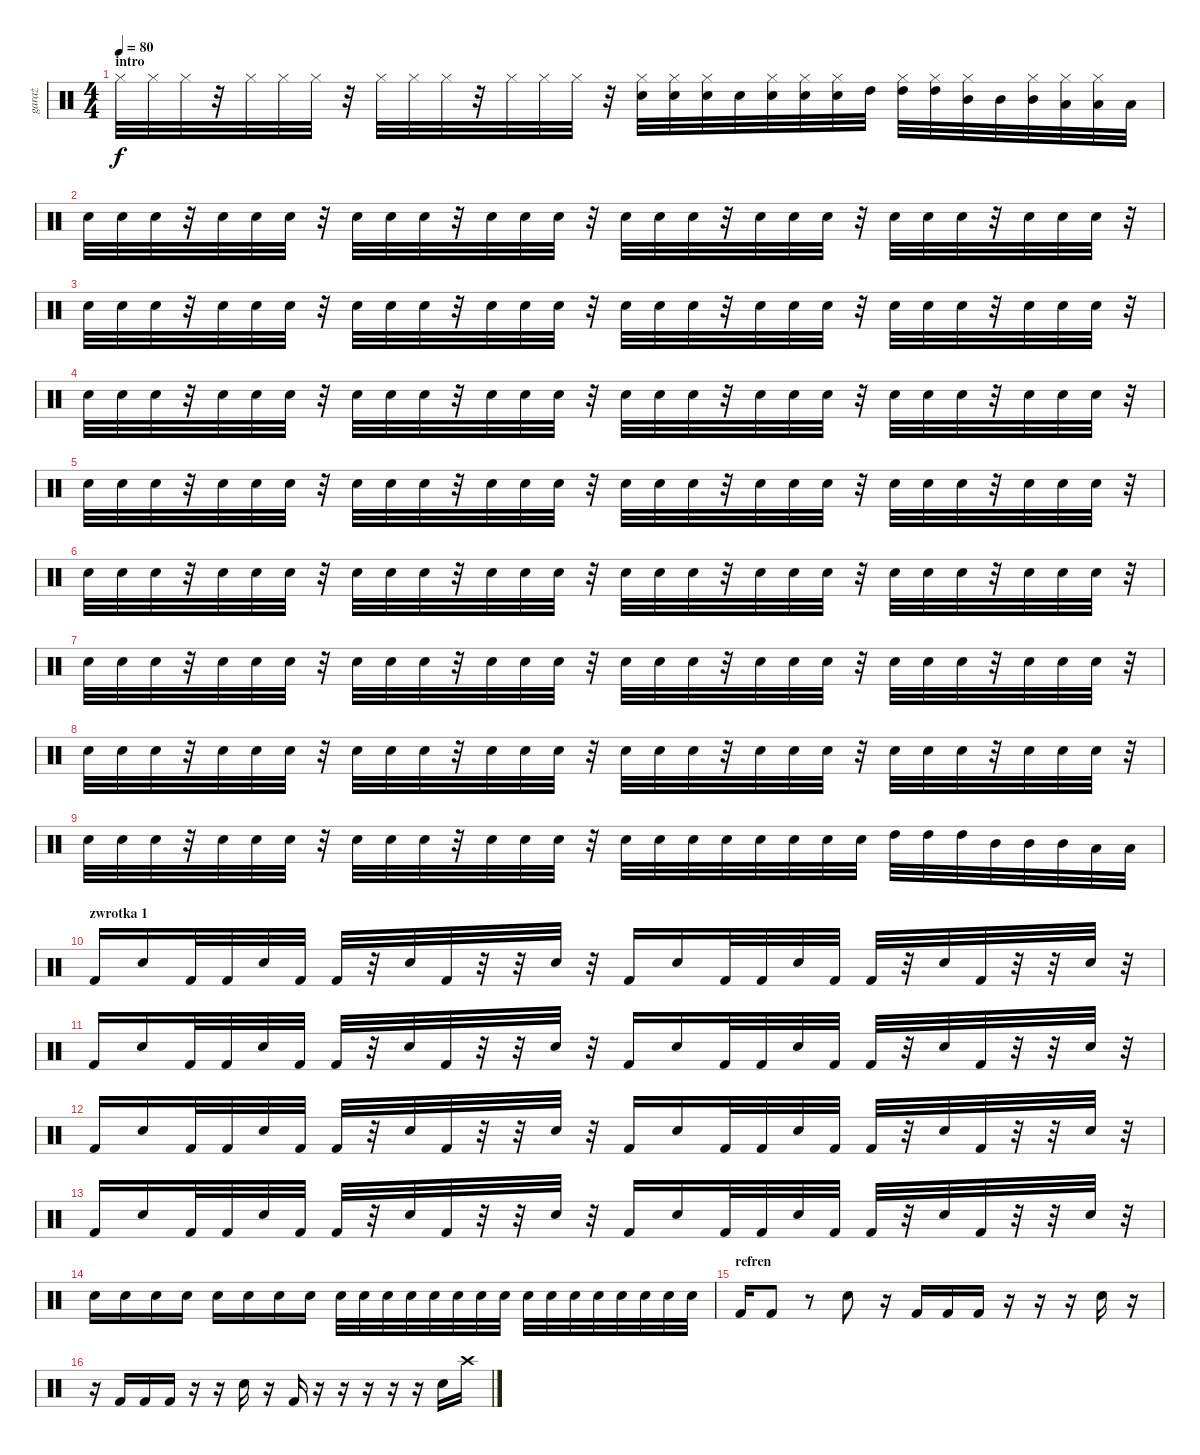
\track ("garaż" "garaż") {instrument percussion}
\staff {score}
\articulation defaults
\ts (4 4)
\section ("" "intro")
\tempo 80
\clef neutral
\ks c "Hi-Hat (closed)".32{dy f} "Hi-Hat (closed)".32 "Hi-Hat (closed)".32
r.32 "Hi-Hat (closed)".32 "Hi-Hat (closed)".32 "Hi-Hat (closed)".32 r.32 "Hi-Hat (closed)".32 "Hi-Hat (closed)".32 "Hi-Hat (closed)".32 r.32 "Hi-Hat (closed)".32 "Hi-Hat (closed)".32 "Hi-Hat (closed)".32 r.32 ("Hi-Hat (closed)" "Snare (hit) 2").32 ("Hi-Hat (closed)" "Snare (hit) 2").32 ("Hi-Hat (closed)" "Snare (hit) 2").32 "Snare (hit) 2".32 ("Hi-Hat (closed)" "Snare (hit) 2").32 ("Hi-Hat (closed)" "Snare (hit) 2").32 ("Hi-Hat (closed)" "Snare (hit) 2").32 "High Tom (hit)".32 ("Hi-Hat (closed)" "High Tom (hit)").32 ("Hi-Hat (closed)" "High Tom (hit)").32 ("Hi-Hat (closed)" "Mid Tom (hit)").32 "Mid Tom (hit)".32 ("Hi-Hat (closed)" "Mid Tom (hit)").32 ("Hi-Hat (closed)" "Low Tom (hit)").32 ("Hi-Hat (closed)" "Low Tom (hit)").32 "Low Tom (hit)".32 |
"Snare (hit) 2".32 "Snare (hit) 2".32 "Snare (hit) 2".32 r.32 "Snare (hit) 2".32 "Snare (hit) 2".32 "Snare (hit) 2".32 r.32 "Snare (hit) 2".32 "Snare (hit) 2".32 "Snare (hit) 2".32 r.32 "Snare (hit) 2".32 "Snare (hit) 2".32 "Snare (hit) 2".32 r.32 "Snare (hit) 2".32 "Snare (hit) 2".32 "Snare (hit) 2".32 r.32 "Snare (hit) 2".32 "Snare (hit) 2".32 "Snare (hit) 2".32 r.32 "Snare (hit) 2".32 "Snare (hit) 2".32 "Snare (hit) 2".32 r.32 "Snare (hit) 2".32 "Snare (hit) 2".32 "Snare (hit) 2".32 r.32 |
"Snare (hit) 2".32 "Snare (hit) 2".32 "Snare (hit) 2".32 r.32 "Snare (hit) 2".32 "Snare (hit) 2".32 "Snare (hit) 2".32 r.32 "Snare (hit) 2".32 "Snare (hit) 2".32 "Snare (hit) 2".32 r.32 "Snare (hit) 2".32 "Snare (hit) 2".32 "Snare (hit) 2".32 r.32 "Snare (hit) 2".32 "Snare (hit) 2".32 "Snare (hit) 2".32 r.32 "Snare (hit) 2".32 "Snare (hit) 2".32 "Snare (hit) 2".32 r.32 "Snare (hit) 2".32 "Snare (hit) 2".32 "Snare (hit) 2".32 r.32 "Snare (hit) 2".32 "Snare (hit) 2".32 "Snare (hit) 2".32 r.32 |
"Snare (hit) 2".32 "Snare (hit) 2".32 "Snare (hit) 2".32 r.32 "Snare (hit) 2".32 "Snare (hit) 2".32 "Snare (hit) 2".32 r.32 "Snare (hit) 2".32 "Snare (hit) 2".32 "Snare (hit) 2".32 r.32 "Snare (hit) 2".32 "Snare (hit) 2".32 "Snare (hit) 2".32 r.32 "Snare (hit) 2".32 "Snare (hit) 2".32 "Snare (hit) 2".32 r.32 "Snare (hit) 2".32 "Snare (hit) 2".32 "Snare (hit) 2".32 r.32 "Snare (hit) 2".32 "Snare (hit) 2".32 "Snare (hit) 2".32 r.32 "Snare (hit) 2".32 "Snare (hit) 2".32 "Snare (hit) 2".32 r.32 |
"Snare (hit) 2".32 "Snare (hit) 2".32 "Snare (hit) 2".32 r.32 "Snare (hit) 2".32 "Snare (hit) 2".32 "Snare (hit) 2".32 r.32 "Snare (hit) 2".32 "Snare (hit) 2".32 "Snare (hit) 2".32 r.32 "Snare (hit) 2".32 "Snare (hit) 2".32 "Snare (hit) 2".32 r.32 "Snare (hit) 2".32 "Snare (hit) 2".32 "Snare (hit) 2".32 r.32 "Snare (hit) 2".32 "Snare (hit) 2".32 "Snare (hit) 2".32 r.32 "Snare (hit) 2".32 "Snare (hit) 2".32 "Snare (hit) 2".32 r.32 "Snare (hit) 2".32 "Snare (hit) 2".32 "Snare (hit) 2".32 r.32 |
"Snare (hit) 2".32 "Snare (hit) 2".32 "Snare (hit) 2".32 r.32 "Snare (hit) 2".32 "Snare (hit) 2".32 "Snare (hit) 2".32 r.32 "Snare (hit) 2".32 "Snare (hit) 2".32 "Snare (hit) 2".32 r.32 "Snare (hit) 2".32 "Snare (hit) 2".32 "Snare (hit) 2".32 r.32 "Snare (hit) 2".32 "Snare (hit) 2".32 "Snare (hit) 2".32 r.32 "Snare (hit) 2".32 "Snare (hit) 2".32 "Snare (hit) 2".32 r.32 "Snare (hit) 2".32 "Snare (hit) 2".32 "Snare (hit) 2".32 r.32 "Snare (hit) 2".32 "Snare (hit) 2".32 "Snare (hit) 2".32 r.32 |
"Snare (hit) 2".32 "Snare (hit) 2".32 "Snare (hit) 2".32 r.32 "Snare (hit) 2".32 "Snare (hit) 2".32 "Snare (hit) 2".32 r.32 "Snare (hit) 2".32 "Snare (hit) 2".32 "Snare (hit) 2".32 r.32 "Snare (hit) 2".32 "Snare (hit) 2".32 "Snare (hit) 2".32 r.32 "Snare (hit) 2".32 "Snare (hit) 2".32 "Snare (hit) 2".32 r.32 "Snare (hit) 2".32 "Snare (hit) 2".32 "Snare (hit) 2".32 r.32 "Snare (hit) 2".32 "Snare (hit) 2".32 "Snare (hit) 2".32 r.32 "Snare (hit) 2".32 "Snare (hit) 2".32 "Snare (hit) 2".32 r.32 |
"Snare (hit) 2".32 "Snare (hit) 2".32 "Snare (hit) 2".32 r.32 "Snare (hit) 2".32 "Snare (hit) 2".32 "Snare (hit) 2".32 r.32 "Snare (hit) 2".32 "Snare (hit) 2".32 "Snare (hit) 2".32 r.32 "Snare (hit) 2".32 "Snare (hit) 2".32 "Snare (hit) 2".32 r.32 "Snare (hit) 2".32 "Snare (hit) 2".32 "Snare (hit) 2".32 r.32 "Snare (hit) 2".32 "Snare (hit) 2".32 "Snare (hit) 2".32 r.32 "Snare (hit) 2".32 "Snare (hit) 2".32 "Snare (hit) 2".32 r.32 "Snare (hit) 2".32 "Snare (hit) 2".32 "Snare (hit) 2".32 r.32 |
"Snare (hit) 2".32 "Snare (hit) 2".32 "Snare (hit) 2".32 r.32 "Snare (hit) 2".32 "Snare (hit) 2".32 "Snare (hit) 2".32 r.32 "Snare (hit) 2".32 "Snare (hit) 2".32 "Snare (hit) 2".32 r.32 "Snare (hit) 2".32 "Snare (hit) 2".32 "Snare (hit) 2".32 r.32 "Snare (hit) 2".32 "Snare (hit) 2".32 "Snare (hit) 2".32 "Snare (hit) 2".32 "Snare (hit) 2".32 "Snare (hit) 2".32 "Snare (hit) 2".32 "Snare (hit) 2".32 "High Tom (hit)".32 "High Tom (hit)".32 "High Tom (hit)".32 "Mid Tom (hit)".32 "Mid Tom (hit)".32 "Mid Tom (hit)".32 "Low Tom (hit)".32 "Low Tom (hit)".32 |
\section ("" "zwrotka 1")
"Kick (hit) 2".16 "Snare (hit) 2".16 "Kick (hit) 2".32 "Kick (hit) 2".32 "Snare (hit) 2".32 "Kick (hit) 2".32 "Kick (hit) 2".32 r.32 "Snare (hit) 2".32 "Kick (hit) 2".32 r.32 r.32 "Snare (hit) 2".32 r.32 "Kick (hit) 2".16 "Snare (hit) 2".16 "Kick (hit) 2".32 "Kick (hit) 2".32 "Snare (hit) 2".32 "Kick (hit) 2".32 "Kick (hit) 2".32 r.32 "Snare (hit) 2".32 "Kick (hit) 2".32 r.32 r.32 "Snare (hit) 2".32 r.32 |
"Kick (hit) 2".16 "Snare (hit) 2".16 "Kick (hit) 2".32 "Kick (hit) 2".32 "Snare (hit) 2".32 "Kick (hit) 2".32 "Kick (hit) 2".32 r.32 "Snare (hit) 2".32 "Kick (hit) 2".32 r.32 r.32 "Snare (hit) 2".32 r.32 "Kick (hit) 2".16 "Snare (hit) 2".16 "Kick (hit) 2".32 "Kick (hit) 2".32 "Snare (hit) 2".32 "Kick (hit) 2".32 "Kick (hit) 2".32 r.32 "Snare (hit) 2".32 "Kick (hit) 2".32 r.32 r.32 "Snare (hit) 2".32 r.32 |
"Kick (hit) 2".16 "Snare (hit) 2".16 "Kick (hit) 2".32 "Kick (hit) 2".32 "Snare (hit) 2".32 "Kick (hit) 2".32 "Kick (hit) 2".32 r.32 "Snare (hit) 2".32 "Kick (hit) 2".32 r.32 r.32 "Snare (hit) 2".32 r.32 "Kick (hit) 2".16 "Snare (hit) 2".16 "Kick (hit) 2".32 "Kick (hit) 2".32 "Snare (hit) 2".32 "Kick (hit) 2".32 "Kick (hit) 2".32 r.32 "Snare (hit) 2".32 "Kick (hit) 2".32 r.32 r.32 "Snare (hit) 2".32 r.32 |
"Kick (hit) 2".16 "Snare (hit) 2".16 "Kick (hit) 2".32 "Kick (hit) 2".32 "Snare (hit) 2".32 "Kick (hit) 2".32 "Kick (hit) 2".32 r.32 "Snare (hit) 2".32 "Kick (hit) 2".32 r.32 r.32 "Snare (hit) 2".32 r.32 "Kick (hit) 2".16 "Snare (hit) 2".16 "Kick (hit) 2".32 "Kick (hit) 2".32 "Snare (hit) 2".32 "Kick (hit) 2".32 "Kick (hit) 2".32 r.32 "Snare (hit) 2".32 "Kick (hit) 2".32 r.32 r.32 "Snare (hit) 2".32 r.32 |
"Snare (hit) 2".16 "Snare (hit) 2".16 "Snare (hit) 2".16 "Snare (hit) 2".16 "Snare (hit) 2".16 "Snare (hit) 2".16 "Snare (hit) 2".16 "Snare (hit) 2".16 "Snare (hit) 2".32 "Snare (hit) 2".32 "Snare (hit) 2".32 "Snare (hit) 2".32 "Snare (hit) 2".32 "Snare (hit) 2".32 "Snare (hit) 2".32 "Snare (hit) 2".32 "Snare (hit) 2".32 "Snare (hit) 2".32 "Snare (hit) 2".32 "Snare (hit) 2".32 "Snare (hit) 2".32 "Snare (hit) 2".32 "Snare (hit) 2".32 "Snare (hit) 2".32 |
\section ("" "refren")
"Kick (hit) 2".16 "Kick (hit) 2".8 r.8 "Snare (hit) 2".8 r.16 "Kick (hit) 2".16 "Kick (hit) 2".16 "Kick (hit) 2".16 r.16 r.16 r.16 "Snare (hit) 2".16 r.16 |
r.16 "Kick (hit) 2".16 "Kick (hit) 2".16 "Kick (hit) 2".16 r.16 r.16 "Snare (hit) 2".16 r.16 "Kick (hit) 2".16 r.16 r.16 r.16 r.16 r.16 "Snare (hit) 2".16 "Crash high (hit)".16
